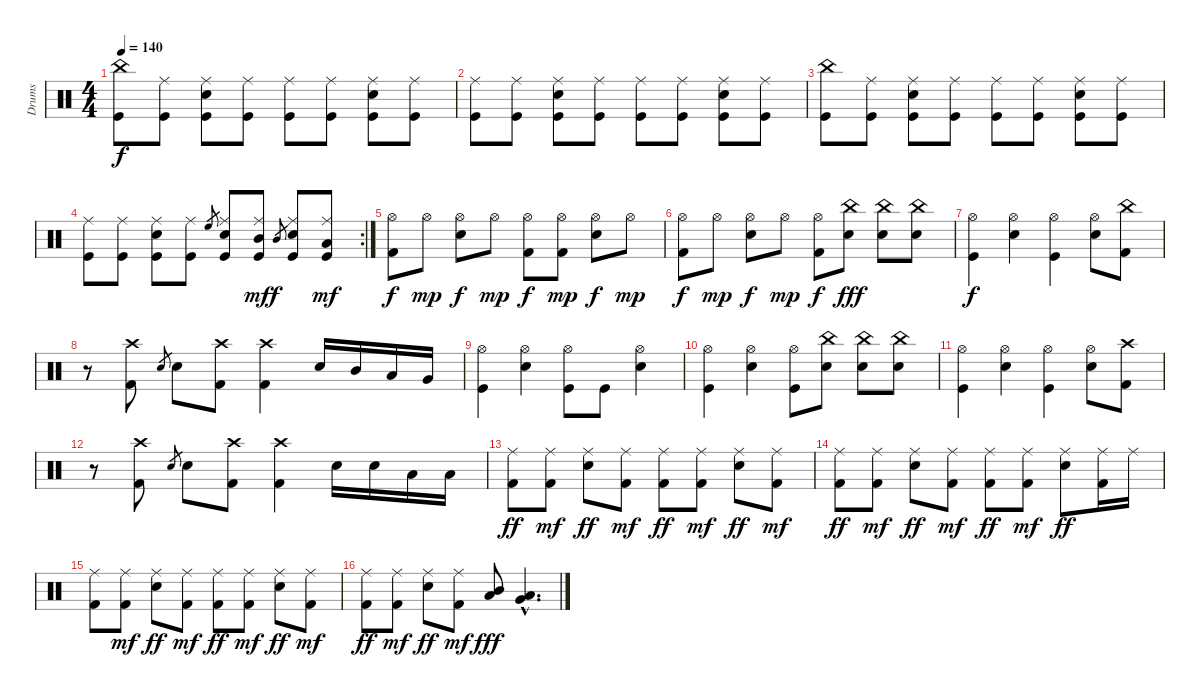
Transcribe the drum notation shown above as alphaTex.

\track ("Drums" "Drums") {instrument percussion}
\staff {score}
\articulation defaults
\ts (4 4)
\tempo 140
\clef neutral
\ks c
("China (hit)" "Kick (hit)").8{dy f} ("Ride (middle)" "Kick (hit)").8 ("Ride (middle)" "Snare (hit) 2" "Kick (hit)").8 ("Ride (middle)" "Kick (hit)").8 ("Ride (middle)" "Kick (hit)").8 ("Ride (middle)" "Kick (hit)").8 ("Ride (middle)" "Snare (hit) 2" "Kick (hit)").8 ("Ride (middle)" "Kick (hit)").8 |
("Ride (middle)" "Kick (hit)").8 ("Ride (middle)" "Kick (hit)").8 ("Ride (middle)" "Snare (hit) 2" "Kick (hit)").8 ("Ride (middle)" "Kick (hit)").8 ("Ride (middle)" "Kick (hit)").8 ("Ride (middle)" "Kick (hit)").8 ("Ride (middle)" "Snare (hit) 2" "Kick (hit)").8 ("Ride (middle)" "Kick (hit)").8 |
("China (hit)" "Kick (hit)").8 ("Ride (middle)" "Kick (hit)").8 ("Ride (middle)" "Snare (hit) 2" "Kick (hit)").8 ("Ride (middle)" "Kick (hit)").8 ("Ride (middle)" "Kick (hit)").8 ("Ride (middle)" "Kick (hit)").8 ("Ride (middle)" "Snare (hit) 2" "Kick (hit)").8 ("Ride (middle)" "Kick (hit)").8 |
\rc 2
("Ride (middle)" "Kick (hit)").8 ("Ride (middle)" "Kick (hit)").8 ("Ride (middle)" "Snare (hit) 2" "Kick (hit)").8 ("Ride (middle)" "Kick (hit)").8 "High Floor Tom (hit)".8{gr} ("Ride (middle)" "Snare (hit) 2" "Kick (hit)").8 ("Ride (middle)" "Mid Tom (hit)" "Kick (hit)").8{dy mf} "Mid Tom (hit)".8{gr dy f} ("Ride (middle)" "Snare (hit) 2" "Kick (hit)").8 ("Ride (middle)" "Low Floor Tom (hit)" "Kick (hit)").8{dy mf} |
("Hi-Hat (open)" "Kick (hit) 2").8{dy f} "Hi-Hat (open)".8{dy mp} ("Hi-Hat (open)" "Snare (hit) 2").8{dy f} "Hi-Hat (open)".8{dy mp} ("Hi-Hat (open)" "Kick (hit) 2").8{dy f} ("Hi-Hat (open)" "Kick (hit) 2").8{dy mp} ("Hi-Hat (open)" "Snare (hit) 2").8{dy f} "Hi-Hat (open)".8{dy mp} |
("Hi-Hat (open)" "Kick (hit) 2").8{dy f} "Hi-Hat (open)".8{dy mp} ("Hi-Hat (open)" "Snare (hit) 2").8{dy f} "Hi-Hat (open)".8{dy mp} ("Hi-Hat (open)" "Kick (hit) 2").8{dy f} ("China (hit)" "Snare (hit) 2").8{dy fff} ("China (hit)" "Snare (hit) 2").8 ("China (hit)" "Snare (hit) 2").8 |
("Hi-Hat (open)" "Kick (hit)").4{dy f} ("Hi-Hat (open)" "Snare (hit) 2").4 ("Hi-Hat (open)" "Kick (hit)").4 ("Hi-Hat (open)" "Snare (hit) 2").8 ("China (hit)" "Kick (hit) 2").8 |
r.8 ("Crash high (hit)" "Kick (hit) 2").8 "Snare (hit) 2".8{gr} "Snare (hit) 2".8 ("Crash high (hit)" "Kick (hit) 2").8 ("Crash high (hit)" "Kick (hit) 2").4 "Snare (hit) 2".16 "Mid Tom (hit)".16 "Low Tom (hit)".16 "Very Low Tom (hit)".16 |
("Hi-Hat (open)" "Kick (hit)").4 ("Hi-Hat (open)" "Snare (hit) 2").4 ("Hi-Hat (open)" "Kick (hit)").8 "Kick (hit)".8 ("Hi-Hat (open)" "Snare (hit) 2").4 |
("Hi-Hat (open)" "Kick (hit)").4 ("Hi-Hat (open)" "Snare (hit) 2").4 ("Hi-Hat (open)" "Kick (hit)").8 ("China (hit)" "Snare (hit) 2").8 ("China (hit)" "Snare (hit) 2").8 ("China (hit)" "Snare (hit) 2").8 |
("Hi-Hat (open)" "Kick (hit)").4 ("Hi-Hat (open)" "Snare (hit) 2").4 ("Hi-Hat (open)" "Kick (hit)").4 ("Hi-Hat (open)" "Snare (hit) 2").8 ("Crash high (hit)" "Kick (hit) 2").8 |
r.8 ("Crash high (hit)" "Kick (hit) 2").8 "Snare (hit) 2".8{gr} "Snare (hit) 2".8 ("Crash high (hit)" "Kick (hit) 2").8 ("Crash high (hit)" "Kick (hit) 2").4 "Snare (hit) 2".16 "Snare (hit) 2".16 "Low Tom (hit)".16 "Low Tom (hit)".16 |
("Ride (middle)" "Kick (hit) 2").8{dy ff} ("Ride (middle)" "Kick (hit) 2").8{dy mf} ("Ride (middle)" "Snare (hit) 2").8{dy ff} ("Ride (middle)" "Kick (hit) 2").8{dy mf} ("Ride (middle)" "Kick (hit) 2").8{dy ff} ("Ride (middle)" "Kick (hit) 2").8{dy mf} ("Ride (middle)" "Snare (hit) 2").8{dy ff} ("Ride (middle)" "Kick (hit) 2").8{dy mf} |
("Ride (middle)" "Kick (hit) 2").8{dy ff} ("Ride (middle)" "Kick (hit) 2").8{dy mf} ("Ride (middle)" "Snare (hit) 2").8{dy ff} ("Ride (middle)" "Kick (hit) 2").8{dy mf} ("Ride (middle)" "Kick (hit) 2").8{dy ff} ("Ride (middle)" "Kick (hit) 2").8{dy mf} ("Ride (middle)" "Snare (hit) 2").8{dy ff} ("Ride (middle)" "Kick (hit) 2").16 "Ride (middle)".16 |
("Ride (middle)" "Kick (hit) 2").8 ("Ride (middle)" "Kick (hit) 2").8{dy mf} ("Ride (middle)" "Snare (hit) 2").8{dy ff} ("Ride (middle)" "Kick (hit) 2").8{dy mf} ("Ride (middle)" "Kick (hit) 2").8{dy ff} ("Ride (middle)" "Kick (hit) 2").8{dy mf} ("Ride (middle)" "Snare (hit) 2").8{dy ff} ("Ride (middle)" "Kick (hit) 2").8{dy mf} |
("Ride (middle)" "Kick (hit) 2").8{dy ff} ("Ride (middle)" "Kick (hit) 2").8{dy mf} ("Ride (middle)" "Snare (hit) 2").8{dy ff} ("Ride (middle)" "Kick (hit) 2").8{dy mf} ("Mid Tom (hit)" "Low Tom (hit)").8{dy fff} ("Very Low Tom (hit)"{hac} "Low Floor Tom (hit)"{hac}).4{d}
